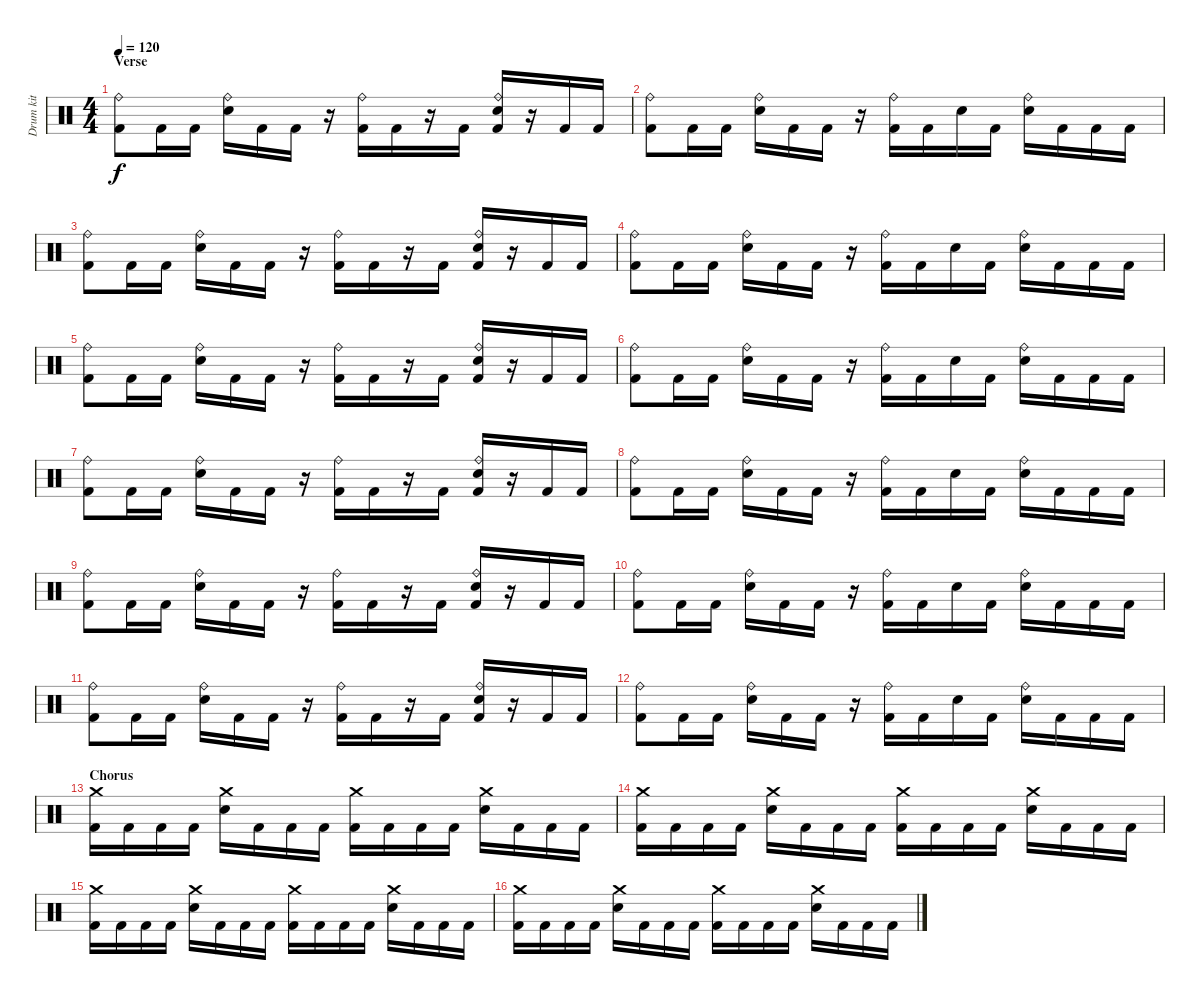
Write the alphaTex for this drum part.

\track ("Drum kit" "Drum kit") {instrument percussion}
\staff {score}
\articulation defaults
\ts (4 4)
\section ("" "Verse")
\tempo 120
\clef neutral
\ks c
("Kick (hit) 2" "Ride (bell)").8{dy f} "Kick (hit) 2".16 "Kick (hit) 2".16 ("Electric Snare (hit)" "Ride (bell)").16 "Kick (hit) 2".16 "Kick (hit) 2".16 r.16 ("Kick (hit) 2" "Ride (bell)").16 "Kick (hit) 2".16 r.16 "Kick (hit) 2".16 ("Kick (hit) 2" "Electric Snare (hit)" "Ride (bell)").16 r.16 "Kick (hit) 2".16 "Kick (hit) 2".16 |
("Kick (hit) 2" "Ride (bell)").8 "Kick (hit) 2".16 "Kick (hit) 2".16 ("Electric Snare (hit)" "Ride (bell)").16 "Kick (hit) 2".16 "Kick (hit) 2".16 r.16 ("Kick (hit) 2" "Ride (bell)").16 "Kick (hit) 2".16 "Electric Snare (hit)".16 "Kick (hit) 2".16 ("Electric Snare (hit)" "Ride (bell)").16 "Kick (hit) 2".16 "Kick (hit) 2".16 "Kick (hit) 2".16 |
("Kick (hit) 2" "Ride (bell)").8 "Kick (hit) 2".16 "Kick (hit) 2".16 ("Electric Snare (hit)" "Ride (bell)").16 "Kick (hit) 2".16 "Kick (hit) 2".16 r.16 ("Kick (hit) 2" "Ride (bell)").16 "Kick (hit) 2".16 r.16 "Kick (hit) 2".16 ("Kick (hit) 2" "Electric Snare (hit)" "Ride (bell)").16 r.16 "Kick (hit) 2".16 "Kick (hit) 2".16 |
("Kick (hit) 2" "Ride (bell)").8 "Kick (hit) 2".16 "Kick (hit) 2".16 ("Electric Snare (hit)" "Ride (bell)").16 "Kick (hit) 2".16 "Kick (hit) 2".16 r.16 ("Kick (hit) 2" "Ride (bell)").16 "Kick (hit) 2".16 "Electric Snare (hit)".16 "Kick (hit) 2".16 ("Electric Snare (hit)" "Ride (bell)").16 "Kick (hit) 2".16 "Kick (hit) 2".16 "Kick (hit) 2".16 |
("Kick (hit) 2" "Ride (bell)").8 "Kick (hit) 2".16 "Kick (hit) 2".16 ("Electric Snare (hit)" "Ride (bell)").16 "Kick (hit) 2".16 "Kick (hit) 2".16 r.16 ("Kick (hit) 2" "Ride (bell)").16 "Kick (hit) 2".16 r.16 "Kick (hit) 2".16 ("Kick (hit) 2" "Electric Snare (hit)" "Ride (bell)").16 r.16 "Kick (hit) 2".16 "Kick (hit) 2".16 |
("Kick (hit) 2" "Ride (bell)").8 "Kick (hit) 2".16 "Kick (hit) 2".16 ("Electric Snare (hit)" "Ride (bell)").16 "Kick (hit) 2".16 "Kick (hit) 2".16 r.16 ("Kick (hit) 2" "Ride (bell)").16 "Kick (hit) 2".16 "Electric Snare (hit)".16 "Kick (hit) 2".16 ("Electric Snare (hit)" "Ride (bell)").16 "Kick (hit) 2".16 "Kick (hit) 2".16 "Kick (hit) 2".16 |
("Kick (hit) 2" "Ride (bell)").8 "Kick (hit) 2".16 "Kick (hit) 2".16 ("Electric Snare (hit)" "Ride (bell)").16 "Kick (hit) 2".16 "Kick (hit) 2".16 r.16 ("Kick (hit) 2" "Ride (bell)").16 "Kick (hit) 2".16 r.16 "Kick (hit) 2".16 ("Kick (hit) 2" "Electric Snare (hit)" "Ride (bell)").16 r.16 "Kick (hit) 2".16 "Kick (hit) 2".16 |
("Kick (hit) 2" "Ride (bell)").8 "Kick (hit) 2".16 "Kick (hit) 2".16 ("Electric Snare (hit)" "Ride (bell)").16 "Kick (hit) 2".16 "Kick (hit) 2".16 r.16 ("Kick (hit) 2" "Ride (bell)").16 "Kick (hit) 2".16 "Electric Snare (hit)".16 "Kick (hit) 2".16 ("Electric Snare (hit)" "Ride (bell)").16 "Kick (hit) 2".16 "Kick (hit) 2".16 "Kick (hit) 2".16 |
("Kick (hit) 2" "Ride (bell)").8 "Kick (hit) 2".16 "Kick (hit) 2".16 ("Electric Snare (hit)" "Ride (bell)").16 "Kick (hit) 2".16 "Kick (hit) 2".16 r.16 ("Kick (hit) 2" "Ride (bell)").16 "Kick (hit) 2".16 r.16 "Kick (hit) 2".16 ("Kick (hit) 2" "Electric Snare (hit)" "Ride (bell)").16 r.16 "Kick (hit) 2".16 "Kick (hit) 2".16 |
("Kick (hit) 2" "Ride (bell)").8 "Kick (hit) 2".16 "Kick (hit) 2".16 ("Electric Snare (hit)" "Ride (bell)").16 "Kick (hit) 2".16 "Kick (hit) 2".16 r.16 ("Kick (hit) 2" "Ride (bell)").16 "Kick (hit) 2".16 "Electric Snare (hit)".16 "Kick (hit) 2".16 ("Electric Snare (hit)" "Ride (bell)").16 "Kick (hit) 2".16 "Kick (hit) 2".16 "Kick (hit) 2".16 |
("Kick (hit) 2" "Ride (bell)").8 "Kick (hit) 2".16 "Kick (hit) 2".16 ("Electric Snare (hit)" "Ride (bell)").16 "Kick (hit) 2".16 "Kick (hit) 2".16 r.16 ("Kick (hit) 2" "Ride (bell)").16 "Kick (hit) 2".16 r.16 "Kick (hit) 2".16 ("Kick (hit) 2" "Electric Snare (hit)" "Ride (bell)").16 r.16 "Kick (hit) 2".16 "Kick (hit) 2".16 |
("Kick (hit) 2" "Ride (bell)").8 "Kick (hit) 2".16 "Kick (hit) 2".16 ("Electric Snare (hit)" "Ride (bell)").16 "Kick (hit) 2".16 "Kick (hit) 2".16 r.16 ("Kick (hit) 2" "Ride (bell)").16 "Kick (hit) 2".16 "Electric Snare (hit)".16 "Kick (hit) 2".16 ("Electric Snare (hit)" "Ride (bell)").16 "Kick (hit) 2".16 "Kick (hit) 2".16 "Kick (hit) 2".16 |
\section ("" "Chorus")
("Kick (hit) 2" "Crash medium (hit)").16 "Kick (hit) 2".16 "Kick (hit) 2".16 "Kick (hit) 2".16 ("Electric Snare (hit)" "Crash medium (hit)").16 "Kick (hit) 2".16 "Kick (hit) 2".16 "Kick (hit) 2".16 ("Kick (hit) 2" "Crash medium (hit)").16 "Kick (hit) 2".16 "Kick (hit) 2".16 "Kick (hit) 2".16 ("Electric Snare (hit)" "Crash medium (hit)").16 "Kick (hit) 2".16 "Kick (hit) 2".16 "Kick (hit) 2".16 |
("Kick (hit) 2" "Crash medium (hit)").16 "Kick (hit) 2".16 "Kick (hit) 2".16 "Kick (hit) 2".16 ("Electric Snare (hit)" "Crash medium (hit)").16 "Kick (hit) 2".16 "Kick (hit) 2".16 "Kick (hit) 2".16 ("Kick (hit) 2" "Crash medium (hit)").16 "Kick (hit) 2".16 "Kick (hit) 2".16 "Kick (hit) 2".16 ("Electric Snare (hit)" "Crash medium (hit)").16 "Kick (hit) 2".16 "Kick (hit) 2".16 "Kick (hit) 2".16 |
("Kick (hit) 2" "Crash medium (hit)").16 "Kick (hit) 2".16 "Kick (hit) 2".16 "Kick (hit) 2".16 ("Electric Snare (hit)" "Crash medium (hit)").16 "Kick (hit) 2".16 "Kick (hit) 2".16 "Kick (hit) 2".16 ("Kick (hit) 2" "Crash medium (hit)").16 "Kick (hit) 2".16 "Kick (hit) 2".16 "Kick (hit) 2".16 ("Electric Snare (hit)" "Crash medium (hit)").16 "Kick (hit) 2".16 "Kick (hit) 2".16 "Kick (hit) 2".16 |
("Kick (hit) 2" "Crash medium (hit)").16 "Kick (hit) 2".16 "Kick (hit) 2".16 "Kick (hit) 2".16 ("Electric Snare (hit)" "Crash medium (hit)").16 "Kick (hit) 2".16 "Kick (hit) 2".16 "Kick (hit) 2".16 ("Kick (hit) 2" "Crash medium (hit)").16 "Kick (hit) 2".16 "Kick (hit) 2".16 "Kick (hit) 2".16 ("Electric Snare (hit)" "Crash medium (hit)").16 "Kick (hit) 2".16 "Kick (hit) 2".16 "Kick (hit) 2".16
